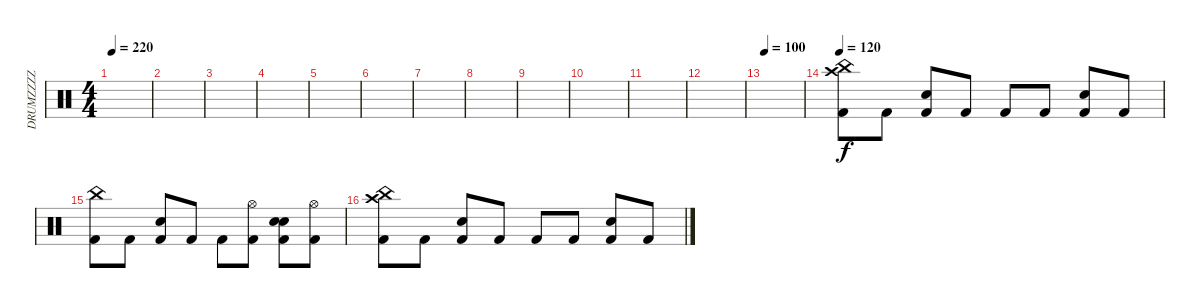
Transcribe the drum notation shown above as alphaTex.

\track ("DRUMZZZZ" "DRUMZZZZ") {instrument percussion}
\staff {score}
\articulation defaults
\ts (4 4)
\tempo 220
\clef neutral
\ks c
|
|
|
|
|
|
|
|
|
|
|
|
\tempo 100
|
\tempo 120
("Crash high (hit)" "China (hit)" "Kick (hit) 2").8 "Kick (hit) 2".8 ("Kick (hit) 2" "Snare (hit) 2").8 "Kick (hit) 2".8 "Kick (hit) 2".8 "Kick (hit) 2".8 ("Kick (hit) 2" "Snare (hit) 2").8 "Kick (hit) 2".8 |
("China (hit)" "Kick (hit) 2").8 "Kick (hit) 2".8 ("Kick (hit) 2" "Snare (hit) 2").8 "Kick (hit) 2".8 "Kick (hit) 2".8 ("Hi-Hat (open)" "Kick (hit) 2").8 ("Kick (hit) 2" "Electric Snare (hit)" "Snare (hit) 2").8 ("Hi-Hat (open)" "Kick (hit) 2").8 |
("Crash high (hit)" "China (hit)" "Kick (hit) 2").8 "Kick (hit) 2".8 ("Kick (hit) 2" "Snare (hit) 2").8 "Kick (hit) 2".8 "Kick (hit) 2".8 "Kick (hit) 2".8 ("Kick (hit) 2" "Snare (hit) 2").8 "Kick (hit) 2".8
